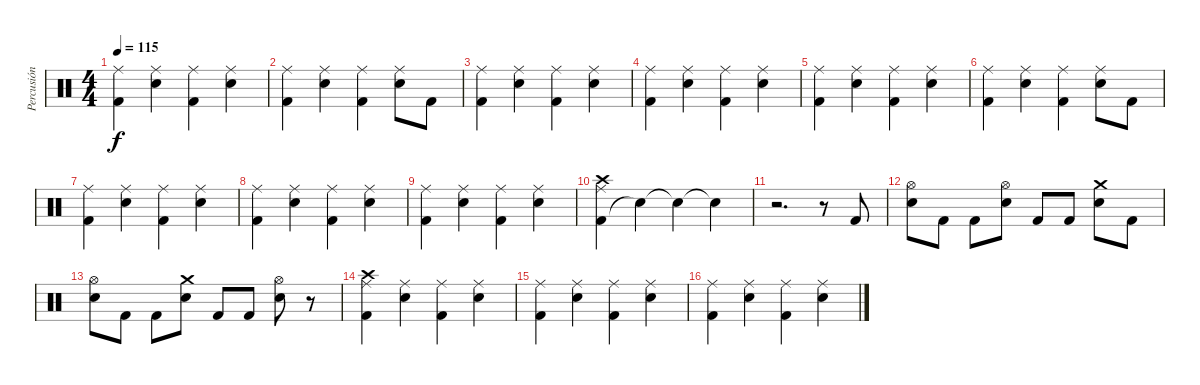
\track ("Percusión" "Percusión") {instrument percussion}
\staff {score}
\articulation defaults
\ts (4 4)
\tempo 115
\clef neutral
\ks c
("Kick (hit) 2" "Ride (middle)").4{dy f} ("Snare (hit) 2" "Ride (middle)").4 ("Kick (hit) 2" "Ride (middle)").4 ("Snare (hit) 2" "Ride (middle)").4 |
("Kick (hit) 2" "Ride (middle)").4 ("Snare (hit) 2" "Ride (middle)").4 ("Kick (hit) 2" "Ride (middle)").4 ("Snare (hit) 2" "Ride (middle)").8 "Kick (hit) 2".8 |
("Kick (hit) 2" "Ride (middle)").4 ("Snare (hit) 2" "Ride (middle)").4 ("Kick (hit) 2" "Ride (middle)").4 ("Snare (hit) 2" "Ride (middle)").4 |
("Kick (hit) 2" "Ride (middle)").4 ("Snare (hit) 2" "Ride (middle)").4 ("Kick (hit) 2" "Ride (middle)").4 ("Snare (hit) 2" "Ride (middle)").4 |
("Kick (hit) 2" "Ride (middle)").4 ("Snare (hit) 2" "Ride (middle)").4 ("Kick (hit) 2" "Ride (middle)").4 ("Snare (hit) 2" "Ride (middle)").4 |
("Kick (hit) 2" "Ride (middle)").4 ("Snare (hit) 2" "Ride (middle)").4 ("Kick (hit) 2" "Ride (middle)").4 ("Snare (hit) 2" "Ride (middle)").8 "Kick (hit) 2".8 |
("Kick (hit) 2" "Ride (middle)").4 ("Snare (hit) 2" "Ride (middle)").4 ("Kick (hit) 2" "Ride (middle)").4 ("Snare (hit) 2" "Ride (middle)").4 |
("Kick (hit) 2" "Ride (middle)").4 ("Snare (hit) 2" "Ride (middle)").4 ("Kick (hit) 2" "Ride (middle)").4 ("Snare (hit) 2" "Ride (middle)").4 |
("Kick (hit) 2" "Ride (middle)").4 ("Snare (hit) 2" "Ride (middle)").4 ("Kick (hit) 2" "Ride (middle)").4 ("Snare (hit) 2" "Ride (middle)").4 |
("Kick (hit) 2" "Ride (middle)" "Crash high (hit)").4 "Snare (hit)"{t}.4 "Snare (hit)"{t}.4 "Snare (hit)"{t}.4 |
r.2{d} r.8 "Kick (hit) 2".8 |
("Snare (hit) 2" "Hi-Hat (open)").8 "Kick (hit) 2".8 "Kick (hit) 2".8 ("Snare (hit) 2" "Hi-Hat (open)").8 "Kick (hit) 2".8 "Kick (hit) 2".8 ("Snare (hit) 2" "Crash medium (hit)").8 "Kick (hit) 2".8 |
("Snare (hit) 2" "Hi-Hat (open)").8 "Kick (hit) 2".8 "Kick (hit) 2".8 ("Snare (hit) 2" "Crash medium (hit)").8 "Kick (hit) 2".8 "Kick (hit) 2".8 ("Snare (hit) 2" "Hi-Hat (open)").8 r.8 |
("Kick (hit) 2" "Ride (middle)" "Crash high (hit)").4 ("Snare (hit) 2" "Ride (middle)").4 ("Kick (hit) 2" "Ride (middle)").4 ("Snare (hit) 2" "Ride (middle)").4 |
("Kick (hit) 2" "Ride (middle)").4 ("Snare (hit) 2" "Ride (middle)").4 ("Kick (hit) 2" "Ride (middle)").4 ("Snare (hit) 2" "Ride (middle)").4 |
("Kick (hit) 2" "Ride (middle)").4 ("Snare (hit) 2" "Ride (middle)").4 ("Kick (hit) 2" "Ride (middle)").4 ("Snare (hit) 2" "Ride (middle)").4
